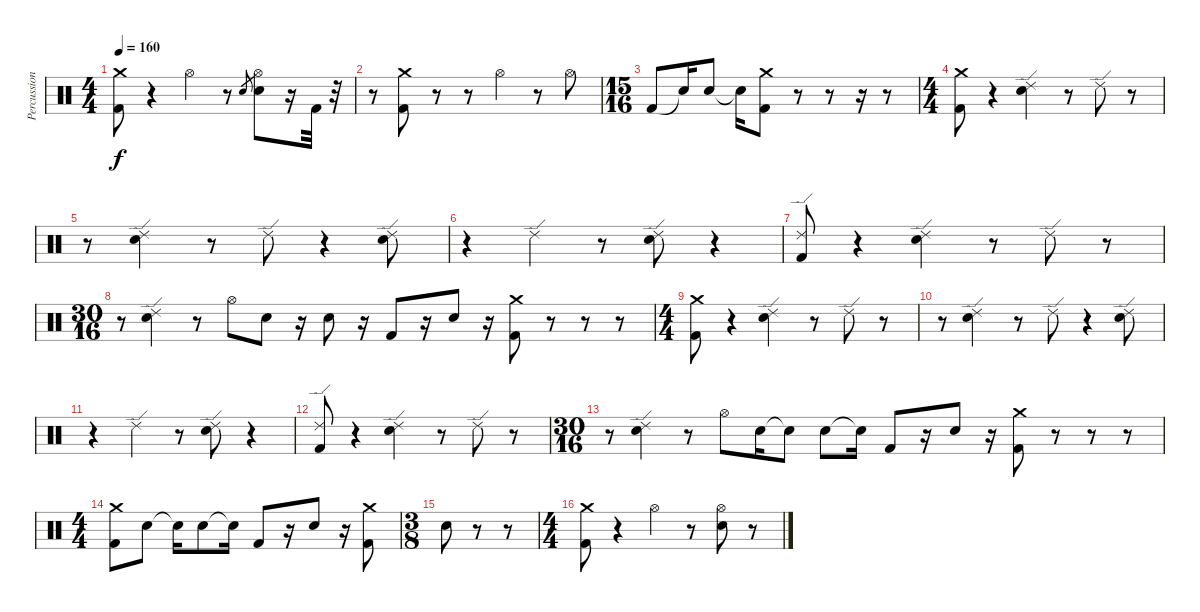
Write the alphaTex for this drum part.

\track ("Percussion" "Percussion") {instrument percussion}
\staff {score}
\articulation defaults
\ts (4 4)
\tempo 160
\clef neutral
\ks c
("Crash medium (hit)" "Kick (hit) 2").8{dy f} r.4 "Hi-Hat (open)".4 r.8 "Electric Snare (hit)".8{gr} ("Hi-Hat (open)" "Electric Snare (hit)").8 r.16 "Kick (hit) 2".32 r.32 |
r.8 ("Crash medium (hit)" "Kick (hit) 2").8 r.8 r.8 "Hi-Hat (open)".4 r.8 "Hi-Hat (open)".8 |
\ts (15 16)
"Kick (hit) 2".8 "Electric Snare (hit)"{t}.16 "Electric Snare (hit)".8 "Snare (hit)"{t}.16 ("Crash medium (hit)" "Kick (hit) 2").8 r.8 r.8 r.16 r.8 |
\ts (4 4)
("Crash medium (hit)" "Kick (hit) 2").8 r.4 ("Ride (edge) 2" "Electric Snare (hit)").4 r.8 "Ride (edge) 2".8 r.8 |
r.8 ("Ride (edge) 2" "Electric Snare (hit)").4 r.8 "Ride (edge) 2".8 r.4 ("Ride (edge) 2" "Electric Snare (hit)").8 |
r.4 "Ride (edge) 2".4 r.8 ("Ride (edge) 2" "Electric Snare (hit)").8 r.4 |
("Ride (edge) 2" "Kick (hit) 2").8 r.4 ("Ride (edge) 2" "Electric Snare (hit)").4 r.8 "Ride (edge) 2".8 r.8 |
\ts (30 16)
r.8 ("Ride (edge) 2" "Electric Snare (hit)").4 r.8 "Hi-Hat (open)".8 "Electric Snare (hit)".8 r.16 "Electric Snare (hit)".8 r.16 "Kick (hit) 2".8 r.16 "Electric Snare (hit)".8 r.16 ("Crash medium (hit)" "Kick (hit) 2").8 r.8 r.8 r.8 |
\ts (4 4)
("Crash medium (hit)" "Kick (hit) 2").8 r.4 ("Ride (edge) 2" "Electric Snare (hit)").4 r.8 "Ride (edge) 2".8 r.8 |
r.8 ("Ride (edge) 2" "Electric Snare (hit)").4 r.8 "Ride (edge) 2".8 r.4 ("Ride (edge) 2" "Electric Snare (hit)").8 |
r.4 "Ride (edge) 2".4 r.8 ("Ride (edge) 2" "Electric Snare (hit)").8 r.4 |
("Ride (edge) 2" "Kick (hit) 2").8 r.4 ("Ride (edge) 2" "Electric Snare (hit)").4 r.8 "Ride (edge) 2".8 r.8 |
\ts (30 16)
r.8 ("Ride (edge) 2" "Electric Snare (hit)").4 r.8 "Hi-Hat (open)".8 "Electric Snare (hit)".16 "Electric Snare (hit)"{t}.8 "Electric Snare (hit)".8 "Snare (hit)"{t}.16 "Kick (hit) 2".8 r.16 "Electric Snare (hit)".8 r.16 ("Crash medium (hit)" "Kick (hit) 2").8 r.8 r.8 r.8 |
\ts (4 4)
("Crash medium (hit)" "Kick (hit) 2").8 "Electric Snare (hit)".8 "Electric Snare (hit)"{t}.16 "Electric Snare (hit)".8 "Snare (hit)"{t}.16 "Kick (hit) 2".8 r.16 "Electric Snare (hit)".8 r.16 ("Crash medium (hit)" "Kick (hit) 2").8 |
\ts (3 8)
"Snare (hit)".8 r.8 r.8 |
\ts (4 4)
("Crash medium (hit)" "Kick (hit) 2").8 r.4 "Hi-Hat (open)".4 r.8 ("Hi-Hat (open)" "Electric Snare (hit)").8 r.8
